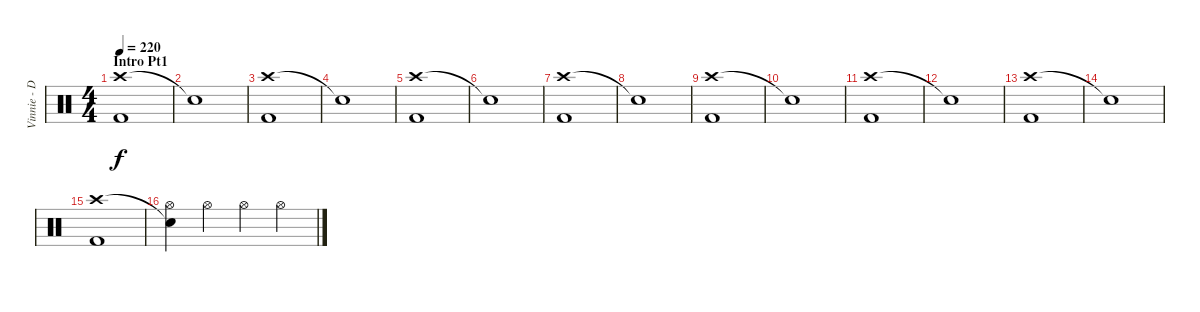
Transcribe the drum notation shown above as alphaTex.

\track ("Vinnie - Drums" "Vinnie - D") {instrument percussion}
\staff {score}
\articulation defaults
\ts (4 4)
\section ("" "Intro Pt1")
\tempo 220
\clef neutral
\ks c
("Crash high (hit)" "Kick (hit) 2").1{dy f} |
"Snare (hit)"{t}.1 |
("Crash high (hit)" "Kick (hit) 2").1 |
"Snare (hit)"{t}.1 |
("Crash high (hit)" "Kick (hit) 2").1 |
"Snare (hit)"{t}.1 |
("Crash high (hit)" "Kick (hit) 2").1 |
"Snare (hit)"{t}.1 |
("Crash high (hit)" "Kick (hit) 2").1 |
"Snare (hit)"{t}.1 |
("Crash high (hit)" "Kick (hit) 2").1 |
"Snare (hit)"{t}.1 |
("Crash high (hit)" "Kick (hit) 2").1 |
"Snare (hit)"{t}.1 |
("Crash high (hit)" "Kick (hit) 2").1 |
("Snare (hit)"{t} "Hi-Hat (open)").4 "Hi-Hat (open)".4 "Hi-Hat (open)".4 "Hi-Hat (open)".4
